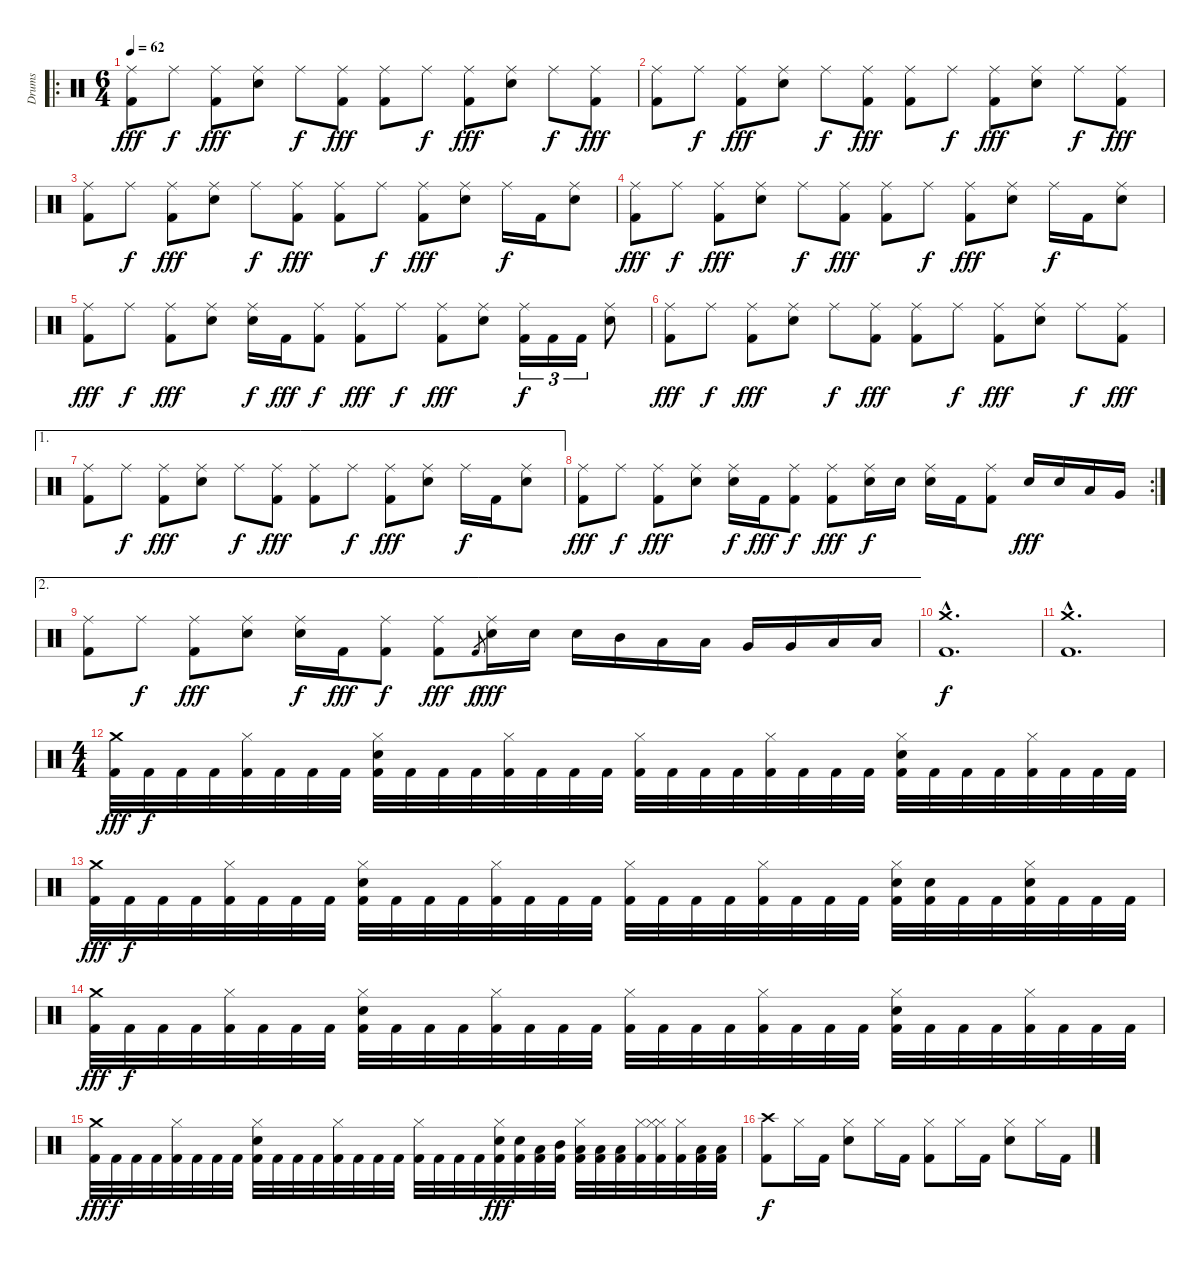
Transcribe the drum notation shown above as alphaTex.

\track ("Drums" "Drums") {instrument percussion}
\staff {score}
\articulation defaults
\ro
\ts (6 4)
\tempo 62
\clef neutral
\ks c
("Ride (middle)" "Kick (hit) 2").8{dy fff} "Ride (middle)".8{dy f} ("Ride (middle)" "Kick (hit) 2").8{dy fff} ("Ride (middle)" "Electric Snare (hit)").8 "Ride (middle)".8{dy f} ("Ride (middle)" "Kick (hit) 2").8{dy fff} ("Ride (middle)" "Kick (hit) 2").8 "Ride (middle)".8{dy f} ("Ride (middle)" "Kick (hit) 2").8{dy fff} ("Ride (middle)" "Electric Snare (hit)").8 "Ride (middle)".8{dy f} ("Ride (middle)" "Kick (hit) 2").8{dy fff} |
("Ride (middle)" "Kick (hit) 2").8 "Ride (middle)".8{dy f} ("Ride (middle)" "Kick (hit) 2").8{dy fff} ("Ride (middle)" "Electric Snare (hit)").8 "Ride (middle)".8{dy f} ("Ride (middle)" "Kick (hit) 2").8{dy fff} ("Ride (middle)" "Kick (hit) 2").8 "Ride (middle)".8{dy f} ("Ride (middle)" "Kick (hit) 2").8{dy fff} ("Ride (middle)" "Electric Snare (hit)").8 "Ride (middle)".8{dy f} ("Ride (middle)" "Kick (hit) 2").8{dy fff} |
("Ride (middle)" "Kick (hit) 2").8 "Ride (middle)".8{dy f} ("Ride (middle)" "Kick (hit) 2").8{dy fff} ("Ride (middle)" "Electric Snare (hit)").8 "Ride (middle)".8{dy f} ("Ride (middle)" "Kick (hit) 2").8{dy fff} ("Ride (middle)" "Kick (hit) 2").8 "Ride (middle)".8{dy f} ("Ride (middle)" "Kick (hit) 2").8{dy fff} ("Ride (middle)" "Electric Snare (hit)").8 "Ride (middle)".16{dy f} "Kick (hit) 2".16 ("Ride (middle)" "Electric Snare (hit)").8 |
("Ride (middle)" "Kick (hit) 2").8{dy fff} "Ride (middle)".8{dy f} ("Ride (middle)" "Kick (hit) 2").8{dy fff} ("Ride (middle)" "Electric Snare (hit)").8 "Ride (middle)".8{dy f} ("Ride (middle)" "Kick (hit) 2").8{dy fff} ("Ride (middle)" "Kick (hit) 2").8 "Ride (middle)".8{dy f} ("Ride (middle)" "Kick (hit) 2").8{dy fff} ("Ride (middle)" "Electric Snare (hit)").8 "Ride (middle)".16{dy f} "Kick (hit) 2".16 ("Ride (middle)" "Electric Snare (hit)").8 |
("Ride (middle)" "Kick (hit) 2").8{dy fff} "Ride (middle)".8{dy f} ("Ride (middle)" "Kick (hit) 2").8{dy fff} ("Ride (middle)" "Electric Snare (hit)").8 ("Ride (middle)" "Electric Snare (hit)").16{dy f} "Kick (hit) 2".16{dy fff} ("Ride (middle)" "Kick (hit) 2").8{dy f} ("Ride (middle)" "Kick (hit) 2").8{dy fff} "Ride (middle)".8{dy f} ("Ride (middle)" "Kick (hit) 2").8{dy fff} ("Ride (middle)" "Electric Snare (hit)").8 ("Ride (middle)" "Kick (hit) 2").16{tu (3 2) dy f} "Kick (hit) 2".16{tu (3 2)} "Kick (hit) 2".16{tu (3 2)} ("Ride (middle)" "Electric Snare (hit)").8 |
("Ride (middle)" "Kick (hit) 2").8{dy fff} "Ride (middle)".8{dy f} ("Ride (middle)" "Kick (hit) 2").8{dy fff} ("Ride (middle)" "Electric Snare (hit)").8 "Ride (middle)".8{dy f} ("Ride (middle)" "Kick (hit) 2").8{dy fff} ("Ride (middle)" "Kick (hit) 2").8 "Ride (middle)".8{dy f} ("Ride (middle)" "Kick (hit) 2").8{dy fff} ("Ride (middle)" "Electric Snare (hit)").8 "Ride (middle)".8{dy f} ("Ride (middle)" "Kick (hit) 2").8{dy fff} |
\ae 1
("Ride (middle)" "Kick (hit) 2").8 "Ride (middle)".8{dy f} ("Ride (middle)" "Kick (hit) 2").8{dy fff} ("Ride (middle)" "Electric Snare (hit)").8 "Ride (middle)".8{dy f} ("Ride (middle)" "Kick (hit) 2").8{dy fff} ("Ride (middle)" "Kick (hit) 2").8 "Ride (middle)".8{dy f} ("Ride (middle)" "Kick (hit) 2").8{dy fff} ("Ride (middle)" "Electric Snare (hit)").8 "Ride (middle)".16{dy f} "Kick (hit) 2".16 ("Ride (middle)" "Electric Snare (hit)").8 |
\rc 2
("Ride (middle)" "Kick (hit) 2").8{dy fff} "Ride (middle)".8{dy f} ("Ride (middle)" "Kick (hit) 2").8{dy fff} ("Ride (middle)" "Electric Snare (hit)").8 ("Ride (middle)" "Electric Snare (hit)").16{dy f} "Kick (hit) 2".16{dy fff} ("Ride (middle)" "Kick (hit) 2").8{dy f} ("Ride (middle)" "Kick (hit) 2").8{dy fff} ("Ride (middle)" "Electric Snare (hit)").16{dy f} "Electric Snare (hit)".16 ("Ride (middle)" "Electric Snare (hit)").16 "Kick (hit) 2".16 ("Ride (middle)" "Kick (hit) 2").8 "Electric Snare (hit)".16{dy fff} "Electric Snare (hit)".16 "Low Tom (hit)".16 "Very Low Tom (hit)".16 |
\ae 2
("Ride (middle)" "Kick (hit) 2").8 "Ride (middle)".8{dy f} ("Ride (middle)" "Kick (hit) 2").8{dy fff} ("Ride (middle)" "Electric Snare (hit)").8 ("Ride (middle)" "Electric Snare (hit)").16{dy f} "Kick (hit) 2".16{dy fff} ("Ride (middle)" "Kick (hit) 2").8{dy f} ("Ride (middle)" "Kick (hit) 2").8{dy fff} "Kick (hit) 2".8{gr dy f} ("Ride (middle)" "Electric Snare (hit)").16{dy fff} "Electric Snare (hit)".16 "Electric Snare (hit)".16 "Mid Tom (hit)".16 "Low Tom (hit)".16 "Low Tom (hit)".16 "Very Low Tom (hit)".16 "Very Low Tom (hit)".16 "Low Floor Tom (hit)".16 "Low Floor Tom (hit)".16 |
("Crash medium (hit)"{hac} "Kick (hit) 2"{hac}).1{d dy f} |
("Crash medium (hit)"{hac} "Kick (hit) 2"{hac}).1{d} |
\ts (4 4)
("Crash medium (hit)" "Kick (hit) 2").32{dy fff} "Kick (hit) 2".32{dy f} "Kick (hit) 2".32 "Kick (hit) 2".32 ("Hi-Hat (closed)" "Kick (hit) 2").32 "Kick (hit) 2".32 "Kick (hit) 2".32 "Kick (hit) 2".32 ("Hi-Hat (closed)" "Electric Snare (hit)" "Kick (hit) 2").32 "Kick (hit) 2".32 "Kick (hit) 2".32 "Kick (hit) 2".32 ("Hi-Hat (closed)" "Kick (hit) 2").32 "Kick (hit) 2".32 "Kick (hit) 2".32 "Kick (hit) 2".32 ("Hi-Hat (closed)" "Kick (hit) 2").32 "Kick (hit) 2".32 "Kick (hit) 2".32 "Kick (hit) 2".32 ("Hi-Hat (closed)" "Kick (hit) 2").32 "Kick (hit) 2".32 "Kick (hit) 2".32 "Kick (hit) 2".32 ("Hi-Hat (closed)" "Electric Snare (hit)" "Kick (hit) 2").32 "Kick (hit) 2".32 "Kick (hit) 2".32 "Kick (hit) 2".32 ("Hi-Hat (closed)" "Kick (hit) 2").32 "Kick (hit) 2".32 "Kick (hit) 2".32 "Kick (hit) 2".32 |
("Crash medium (hit)" "Kick (hit) 2").32{dy fff} "Kick (hit) 2".32{dy f} "Kick (hit) 2".32 "Kick (hit) 2".32 ("Hi-Hat (closed)" "Kick (hit) 2").32 "Kick (hit) 2".32 "Kick (hit) 2".32 "Kick (hit) 2".32 ("Hi-Hat (closed)" "Electric Snare (hit)" "Kick (hit) 2").32 "Kick (hit) 2".32 "Kick (hit) 2".32 "Kick (hit) 2".32 ("Hi-Hat (closed)" "Kick (hit) 2").32 "Kick (hit) 2".32 "Kick (hit) 2".32 "Kick (hit) 2".32 ("Hi-Hat (closed)" "Kick (hit) 2").32 "Kick (hit) 2".32 "Kick (hit) 2".32 "Kick (hit) 2".32 ("Hi-Hat (closed)" "Kick (hit) 2").32 "Kick (hit) 2".32 "Kick (hit) 2".32 "Kick (hit) 2".32 ("Hi-Hat (closed)" "Electric Snare (hit)" "Kick (hit) 2").32 ("Electric Snare (hit)" "Kick (hit) 2").32 "Kick (hit) 2".32 "Kick (hit) 2".32 ("Hi-Hat (closed)" "Electric Snare (hit)" "Kick (hit) 2").32 "Kick (hit) 2".32 "Kick (hit) 2".32 "Kick (hit) 2".32 |
("Crash medium (hit)" "Kick (hit) 2").32{dy fff} "Kick (hit) 2".32{dy f} "Kick (hit) 2".32 "Kick (hit) 2".32 ("Hi-Hat (closed)" "Kick (hit) 2").32 "Kick (hit) 2".32 "Kick (hit) 2".32 "Kick (hit) 2".32 ("Hi-Hat (closed)" "Electric Snare (hit)" "Kick (hit) 2").32 "Kick (hit) 2".32 "Kick (hit) 2".32 "Kick (hit) 2".32 ("Hi-Hat (closed)" "Kick (hit) 2").32 "Kick (hit) 2".32 "Kick (hit) 2".32 "Kick (hit) 2".32 ("Hi-Hat (closed)" "Kick (hit) 2").32 "Kick (hit) 2".32 "Kick (hit) 2".32 "Kick (hit) 2".32 ("Hi-Hat (closed)" "Kick (hit) 2").32 "Kick (hit) 2".32 "Kick (hit) 2".32 "Kick (hit) 2".32 ("Hi-Hat (closed)" "Electric Snare (hit)" "Kick (hit) 2").32 "Kick (hit) 2".32 "Kick (hit) 2".32 "Kick (hit) 2".32 ("Hi-Hat (closed)" "Kick (hit) 2").32 "Kick (hit) 2".32 "Kick (hit) 2".32 "Kick (hit) 2".32 |
("Crash medium (hit)" "Kick (hit) 2").32{dy fff} "Kick (hit) 2".32{dy f} "Kick (hit) 2".32 "Kick (hit) 2".32 ("Hi-Hat (closed)" "Kick (hit) 2").32 "Kick (hit) 2".32 "Kick (hit) 2".32 "Kick (hit) 2".32 ("Hi-Hat (closed)" "Electric Snare (hit)" "Kick (hit) 2").32 "Kick (hit) 2".32 "Kick (hit) 2".32 "Kick (hit) 2".32 ("Hi-Hat (closed)" "Kick (hit) 2").32 "Kick (hit) 2".32 "Kick (hit) 2".32 "Kick (hit) 2".32 ("Hi-Hat (closed)" "Kick (hit) 2").32 "Kick (hit) 2".32 "Kick (hit) 2".32 "Kick (hit) 2".32 ("Hi-Hat (closed)" "Electric Snare (hit)" "Kick (hit) 2").32{dy fff} ("Electric Snare (hit)" "Kick (hit) 2").32 ("Low Floor Tom (hit)" "Kick (hit) 2").32 ("Mid Tom (hit)" "Kick (hit) 2").32 ("Hi-Hat (closed)" "Low Tom (hit)" "Kick (hit) 2").32 ("Low Tom (hit)" "Kick (hit) 2").32 ("Low Tom (hit)" "Kick (hit) 2").32 ("Hi-Hat (closed)" "Kick (hit) 2").32 ("Hi-Hat (closed)" "Hi-Hat (closed)" "Kick (hit) 2").32 ("Hi-Hat (closed)" "Kick (hit) 2").32 ("Low Floor Tom (hit)" "Kick (hit) 2").32 ("Low Floor Tom (hit)" "Kick (hit) 2").32 |
("Crash high (hit)" "Kick (hit) 2").8{dy f} "Hi-Hat (closed)".16 "Kick (hit) 2".16 ("Hi-Hat (closed)" "Electric Snare (hit)").8 "Hi-Hat (closed)".16 "Kick (hit) 2".16 ("Hi-Hat (closed)" "Kick (hit) 2").8 "Hi-Hat (closed)".16 "Kick (hit) 2".16 ("Hi-Hat (closed)" "Electric Snare (hit)").8 "Hi-Hat (closed)".16 "Kick (hit) 2".16
